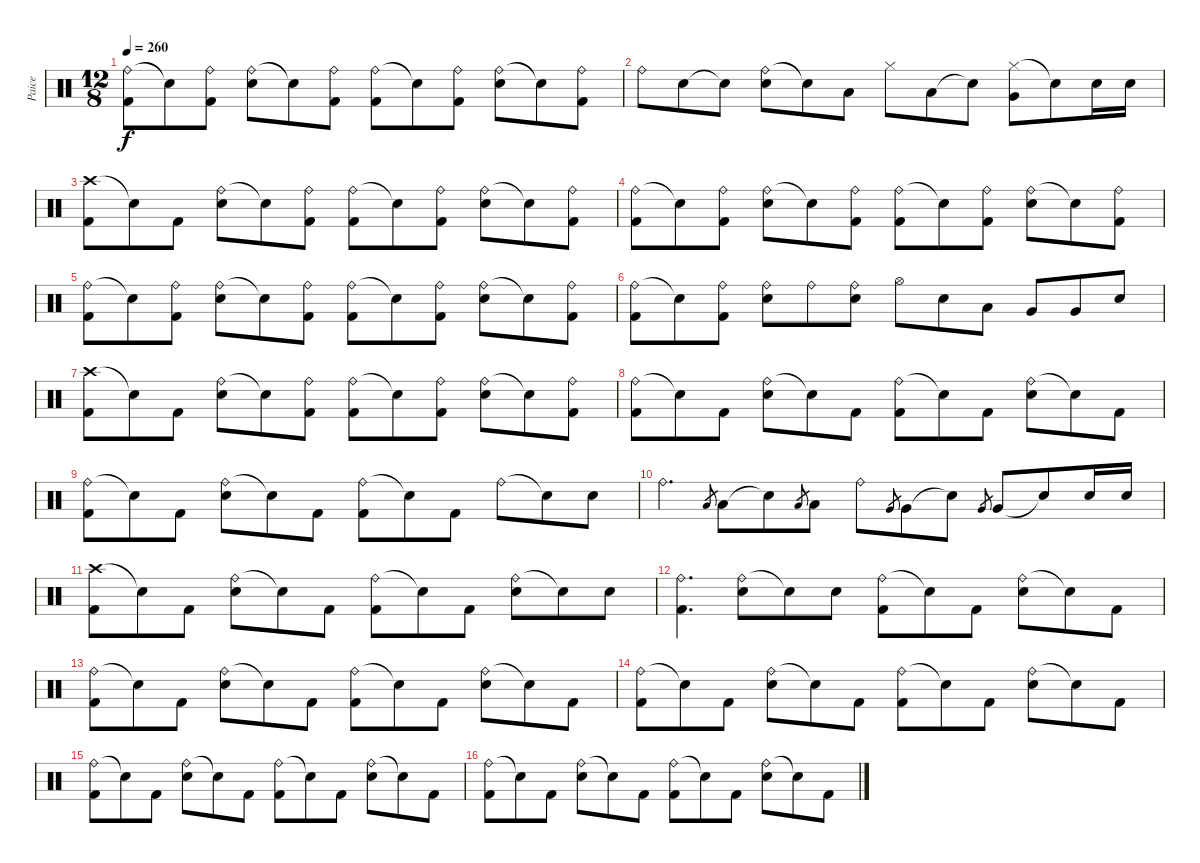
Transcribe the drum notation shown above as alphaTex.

\track ("Paice" "Paice") {instrument percussion}
\staff {score}
\articulation defaults
\ts (12 8)
\tempo 260
\clef neutral
\ks c
("Ride (bell)" "Kick (hit) 2").8{dy f} "Snare (hit)"{t}.8 ("Ride (bell)" "Kick (hit) 2").8 ("Ride (bell)" "Electric Snare (hit)").8 "Snare (hit)"{t}.8 ("Ride (bell)" "Kick (hit) 2").8 ("Ride (bell)" "Kick (hit) 2").8 "Snare (hit)"{t}.8 ("Ride (bell)" "Kick (hit) 2").8 ("Ride (bell)" "Electric Snare (hit)").8 "Snare (hit)"{t}.8 ("Ride (bell)" "Kick (hit) 2").8 |
"Ride (bell)".8 "Electric Snare (hit)".8 "Snare (hit)"{t}.8 ("Ride (bell)" "Electric Snare (hit)").8 "Snare (hit)"{t}.8 "Low Tom (hit)".8 "Hi-Hat (closed)".8 "Low Tom (hit)".8 "Snare (hit)"{t}.8 ("Hi-Hat (closed)" "Very Low Tom (hit)").8 "Snare (hit)"{t}.8 "Electric Snare (hit)".16 "Electric Snare (hit)".16 |
("Crash high (hit)" "Kick (hit) 2").8 "Snare (hit)"{t}.8 "Kick (hit) 2".8 ("Ride (bell)" "Electric Snare (hit)").8 "Snare (hit)"{t}.8 ("Ride (bell)" "Kick (hit) 2").8 ("Ride (bell)" "Kick (hit) 2").8 "Snare (hit)"{t}.8 ("Ride (bell)" "Kick (hit) 2").8 ("Ride (bell)" "Electric Snare (hit)").8 "Snare (hit)"{t}.8 ("Ride (bell)" "Kick (hit) 2").8 |
("Ride (bell)" "Kick (hit) 2").8 "Snare (hit)"{t}.8 ("Ride (bell)" "Kick (hit) 2").8 ("Ride (bell)" "Electric Snare (hit)").8 "Snare (hit)"{t}.8 ("Ride (bell)" "Kick (hit) 2").8 ("Ride (bell)" "Kick (hit) 2").8 "Snare (hit)"{t}.8 ("Ride (bell)" "Kick (hit) 2").8 ("Ride (bell)" "Electric Snare (hit)").8 "Snare (hit)"{t}.8 ("Ride (bell)" "Kick (hit) 2").8 |
("Ride (bell)" "Kick (hit) 2").8 "Snare (hit)"{t}.8 ("Ride (bell)" "Kick (hit) 2").8 ("Ride (bell)" "Electric Snare (hit)").8 "Snare (hit)"{t}.8 ("Ride (bell)" "Kick (hit) 2").8 ("Ride (bell)" "Kick (hit) 2").8 "Snare (hit)"{t}.8 ("Ride (bell)" "Kick (hit) 2").8 ("Ride (bell)" "Electric Snare (hit)").8 "Snare (hit)"{t}.8 ("Ride (bell)" "Kick (hit) 2").8 |
("Ride (bell)" "Kick (hit) 2").8 "Snare (hit)"{t}.8 ("Ride (bell)" "Kick (hit) 2").8 ("Ride (bell)" "Electric Snare (hit)").8 "Ride (bell)".8 ("Ride (bell)" "Electric Snare (hit)").8 "Hi-Hat (open)".8 "Electric Snare (hit)".8 "Low Tom (hit)".8 "Very Low Tom (hit)".8 "Very Low Tom (hit)".8 "Electric Snare (hit)".8 |
("Crash high (hit)" "Kick (hit) 2").8 "Snare (hit)"{t}.8 "Kick (hit) 2".8 ("Ride (bell)" "Electric Snare (hit)").8 "Snare (hit)"{t}.8 ("Ride (bell)" "Kick (hit) 2").8 ("Ride (bell)" "Kick (hit) 2").8 "Snare (hit)"{t}.8 ("Ride (bell)" "Kick (hit) 2").8 ("Ride (bell)" "Electric Snare (hit)").8 "Snare (hit)"{t}.8 ("Ride (bell)" "Kick (hit) 2").8 |
("Ride (bell)" "Kick (hit) 2").8 "Snare (hit)"{t}.8 "Kick (hit) 2".8 ("Ride (bell)" "Electric Snare (hit)").8 "Snare (hit)"{t}.8 "Kick (hit) 2".8 ("Ride (bell)" "Kick (hit) 2").8 "Snare (hit)"{t}.8 "Kick (hit) 2".8 ("Ride (bell)" "Electric Snare (hit)").8 "Snare (hit)"{t}.8 "Kick (hit) 2".8 |
("Ride (bell)" "Kick (hit) 2").8 "Snare (hit)"{t}.8 "Kick (hit) 2".8 ("Ride (bell)" "Electric Snare (hit)").8 "Snare (hit)"{t}.8 "Kick (hit) 2".8 ("Ride (bell)" "Kick (hit) 2").8 "Snare (hit)"{t}.8 "Kick (hit) 2".8 "Ride (bell)".8 "Snare (hit)"{t}.8 "Electric Snare (hit)".8 |
"Ride (bell)".4{d} "Low Tom (hit)".8{gr} "Low Tom (hit)".8 "Snare (hit)"{t}.8 "Low Tom (hit)".8{gr} "Low Tom (hit)".8 "Ride (bell)".8 "Very Low Tom (hit)".8{gr} "Very Low Tom (hit)".8 "Snare (hit)"{t}.8 "Very Low Tom (hit)".8{gr} "Very Low Tom (hit)".8 "Snare (hit)"{t}.8 "Electric Snare (hit)".16 "Electric Snare (hit)".16 |
("Crash high (hit)" "Kick (hit) 2").8 "Snare (hit)"{t}.8 "Kick (hit) 2".8 ("Ride (bell)" "Electric Snare (hit)").8 "Snare (hit)"{t}.8 "Kick (hit) 2".8 ("Ride (bell)" "Kick (hit) 2").8 "Snare (hit)"{t}.8 "Kick (hit) 2".8 ("Ride (bell)" "Electric Snare (hit)").8 "Snare (hit)"{t}.8 "Electric Snare (hit)".8 |
("Ride (bell)" "Kick (hit) 2").4{d} ("Ride (bell)" "Electric Snare (hit)").8 "Snare (hit)"{t}.8 "Electric Snare (hit)".8 ("Ride (bell)" "Kick (hit) 2").8 "Snare (hit)"{t}.8 "Kick (hit) 2".8 ("Ride (bell)" "Electric Snare (hit)").8 "Snare (hit)"{t}.8 "Kick (hit) 2".8 |
("Ride (bell)" "Kick (hit) 2").8 "Snare (hit)"{t}.8 "Kick (hit) 2".8 ("Ride (bell)" "Electric Snare (hit)").8 "Snare (hit)"{t}.8 "Kick (hit) 2".8 ("Ride (bell)" "Kick (hit) 2").8 "Snare (hit)"{t}.8 "Kick (hit) 2".8 ("Ride (bell)" "Electric Snare (hit)").8 "Snare (hit)"{t}.8 "Kick (hit) 2".8 |
("Ride (bell)" "Kick (hit) 2").8 "Snare (hit)"{t}.8 "Kick (hit) 2".8 ("Ride (bell)" "Electric Snare (hit)").8 "Snare (hit)"{t}.8 "Kick (hit) 2".8 ("Ride (bell)" "Kick (hit) 2").8 "Snare (hit)"{t}.8 "Kick (hit) 2".8 ("Ride (bell)" "Electric Snare (hit)").8 "Snare (hit)"{t}.8 "Kick (hit) 2".8 |
("Ride (bell)" "Kick (hit) 2").8 "Snare (hit)"{t}.8 "Kick (hit) 2".8 ("Ride (bell)" "Electric Snare (hit)").8 "Snare (hit)"{t}.8 "Kick (hit) 2".8 ("Ride (bell)" "Kick (hit) 2").8 "Snare (hit)"{t}.8 "Kick (hit) 2".8 ("Ride (bell)" "Electric Snare (hit)").8 "Snare (hit)"{t}.8 "Kick (hit) 2".8 |
("Ride (bell)" "Kick (hit) 2").8 "Snare (hit)"{t}.8 "Kick (hit) 2".8 ("Ride (bell)" "Electric Snare (hit)").8 "Snare (hit)"{t}.8 "Kick (hit) 2".8 ("Ride (bell)" "Kick (hit) 2").8 "Snare (hit)"{t}.8 "Kick (hit) 2".8 ("Ride (bell)" "Electric Snare (hit)").8 "Snare (hit)"{t}.8 "Kick (hit) 2".8
